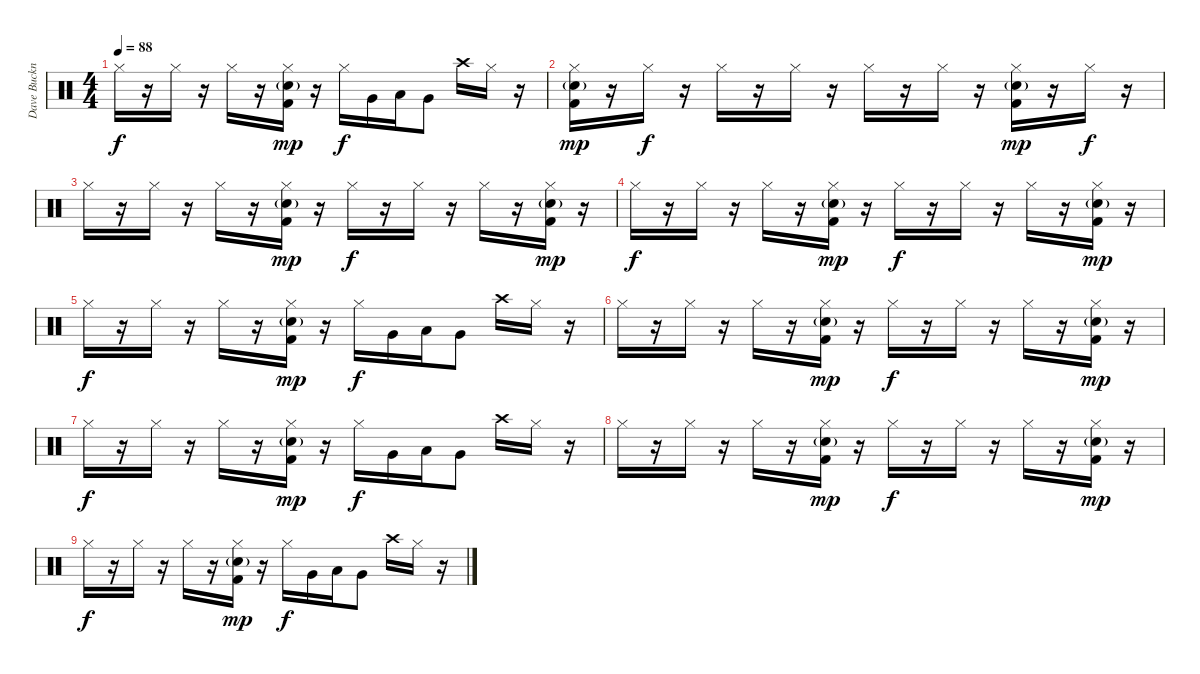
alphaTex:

\track ("Dave Buckner" "Dave Buckn") {instrument percussion}
\staff {score}
\articulation defaults
\ts (4 4)
\tempo 88
\clef neutral
\ks c "Hi-Hat (closed)".16{dy f}
r.16 "Hi-Hat (closed)".16 r.16 "Hi-Hat (closed)".16 r.16 ("Hi-Hat (closed)" "Snare (hit) 2"{g} "Kick (hit) 2").16{dy mp} r.16 "Hi-Hat (closed)".16{dy f} "Very Low Tom (hit)".16 "Low Floor Tom (hit)".16 "Very Low Tom (hit)".8 "Crash high (hit)".16 "Hi-Hat (closed)".16 r.16 |
("Hi-Hat (closed)" "Snare (hit) 2"{g} "Kick (hit) 2").16{dy mp} r.16 "Hi-Hat (closed)".16{dy f} r.16 "Hi-Hat (closed)".16 r.16 "Hi-Hat (closed)".16 r.16 "Hi-Hat (closed)".16 r.16 "Hi-Hat (closed)".16 r.16 ("Hi-Hat (closed)" "Snare (hit) 2"{g} "Kick (hit) 2").16{dy mp} r.16 "Hi-Hat (closed)".16{dy f} r.16 |
"Hi-Hat (closed)".16 r.16 "Hi-Hat (closed)".16 r.16 "Hi-Hat (closed)".16 r.16 ("Hi-Hat (closed)" "Snare (hit) 2"{g} "Kick (hit) 2").16{dy mp} r.16 "Hi-Hat (closed)".16{dy f} r.16 "Hi-Hat (closed)".16 r.16 "Hi-Hat (closed)".16 r.16 ("Hi-Hat (closed)" "Snare (hit) 2"{g} "Kick (hit) 2").16{dy mp} r.16 |
"Hi-Hat (closed)".16{dy f} r.16 "Hi-Hat (closed)".16 r.16 "Hi-Hat (closed)".16 r.16 ("Hi-Hat (closed)" "Snare (hit) 2"{g} "Kick (hit) 2").16{dy mp} r.16 "Hi-Hat (closed)".16{dy f} r.16 "Hi-Hat (closed)".16 r.16 "Hi-Hat (closed)".16 r.16 ("Hi-Hat (closed)" "Snare (hit) 2"{g} "Kick (hit) 2").16{dy mp} r.16 |
"Hi-Hat (closed)".16{dy f} r.16 "Hi-Hat (closed)".16 r.16 "Hi-Hat (closed)".16 r.16 ("Hi-Hat (closed)" "Snare (hit) 2"{g} "Kick (hit) 2").16{dy mp} r.16 "Hi-Hat (closed)".16{dy f} "Very Low Tom (hit)".16 "Low Floor Tom (hit)".16 "Very Low Tom (hit)".8 "Crash high (hit)".16 "Hi-Hat (closed)".16 r.16 |
"Hi-Hat (closed)".16 r.16 "Hi-Hat (closed)".16 r.16 "Hi-Hat (closed)".16 r.16 ("Hi-Hat (closed)" "Snare (hit) 2"{g} "Kick (hit) 2").16{dy mp} r.16 "Hi-Hat (closed)".16{dy f} r.16 "Hi-Hat (closed)".16 r.16 "Hi-Hat (closed)".16 r.16 ("Hi-Hat (closed)" "Snare (hit) 2"{g} "Kick (hit) 2").16{dy mp} r.16 |
"Hi-Hat (closed)".16{dy f} r.16 "Hi-Hat (closed)".16 r.16 "Hi-Hat (closed)".16 r.16 ("Hi-Hat (closed)" "Snare (hit) 2"{g} "Kick (hit) 2").16{dy mp} r.16 "Hi-Hat (closed)".16{dy f} "Very Low Tom (hit)".16 "Low Floor Tom (hit)".16 "Very Low Tom (hit)".8 "Crash high (hit)".16 "Hi-Hat (closed)".16 r.16 |
"Hi-Hat (closed)".16 r.16 "Hi-Hat (closed)".16 r.16 "Hi-Hat (closed)".16 r.16 ("Hi-Hat (closed)" "Snare (hit) 2"{g} "Kick (hit) 2").16{dy mp} r.16 "Hi-Hat (closed)".16{dy f} r.16 "Hi-Hat (closed)".16 r.16 "Hi-Hat (closed)".16 r.16 ("Hi-Hat (closed)" "Snare (hit) 2"{g} "Kick (hit) 2").16{dy mp} r.16 |
"Hi-Hat (closed)".16{dy f} r.16 "Hi-Hat (closed)".16 r.16 "Hi-Hat (closed)".16 r.16 ("Hi-Hat (closed)" "Snare (hit) 2"{g} "Kick (hit) 2").16{dy mp} r.16 "Hi-Hat (closed)".16{dy f} "Very Low Tom (hit)".16 "Low Floor Tom (hit)".16 "Very Low Tom (hit)".8 "Crash high (hit)".16 "Hi-Hat (closed)".16 r.16
